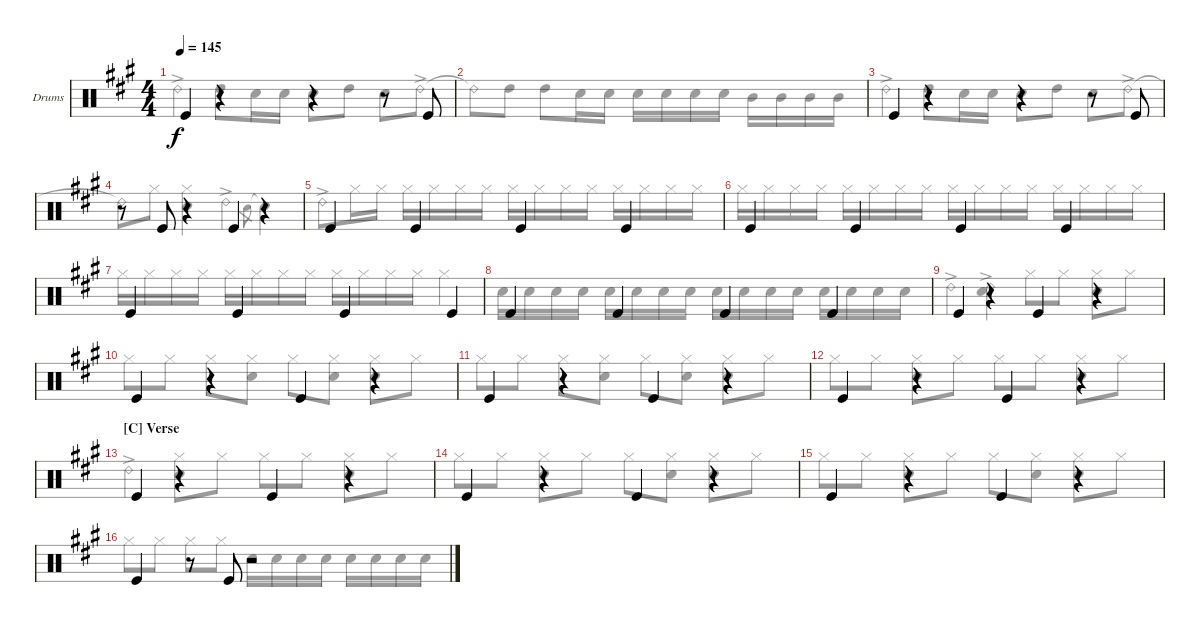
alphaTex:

\bracketExtendMode groupsimilarinstruments
\firstSystemTrackNameOrientation horizontal
\otherSystemsTrackNameOrientation horizontal
\track ("Drumkit" "Drums") {instrument percussion}
\staff {score}
\articulation defaults
\voice
\ts (4 4)
\tempo 145
\clef neutral
\scale
1.05801
\ks a "Kick (hit)".4{dy f}
r.4 r.4 r.8 "Kick (hit)".8 |
\scale
0.941992 |
\scale
1.05801 "Kick (hit)".4 r.4 r.4 r.8 "Kick (hit)".8 |
\scale
0.941992 r.8 "Kick (hit)".8 r.4 "Kick (hit)".4 r.4 |
\scale
1.05801 "Kick (hit)".4 "Kick (hit)".4 "Kick (hit)".4 "Kick (hit)".4 |
\scale
0.941992 "Kick (hit)".4 "Kick (hit)".4 "Kick (hit)".4 "Kick (hit)".4 |
\scale
1.05801 "Kick (hit)".4 "Kick (hit)".4 "Kick (hit)".4 "Kick (hit)".4 |
\scale
0.941992 "Kick (hit)".4 "Kick (hit)".4 "Kick (hit)".4 "Kick (hit)".4 |
\scale
1.05801 "Kick (hit)".4 r.4 "Kick (hit)".4 r.4 |
\scale
0.941992 "Kick (hit)".4 r.4 "Kick (hit)".4 r.4 |
\scale
1.05801 "Kick (hit)".4 r.4 "Kick (hit)".4 r.4 |
\scale
0.941992 "Kick (hit)".4 r.4 "Kick (hit)".4 r.4 |
\section ("C" "Verse")
\scale
1.05801 "Kick (hit)".4 r.4 "Kick (hit)".4 r.4 |
\scale
0.941992 "Kick (hit)".4 r.4 "Kick (hit)".4 r.4 |
\scale
1.05801 "Kick (hit)".4 r.4 "Kick (hit)".4 r.4 |
\scale
0.941992 "Kick (hit)".4 r.8 "Kick (hit)".8 r.2
\voice
\clef neutral
\ottava regular
\simile none
\scale
1.05801
\ks a "Ride (bell) 2"{ac}.4{dy f} "High Tom (hit)".8 "Snare (hit) 2".16 "Snare (hit) 2".16 "Snare (hit) 2".8 "High Tom (hit)".8 "Snare (hit) 2".8 "Ride (bell) 2"{ac}.8
|
\scale
0.941992 "Ride (bell) 2"{t}.8 "High Tom (hit)".8 "High Tom (hit)".8 "Snare (hit) 2".16 "Snare (hit) 2".16 "Snare (hit) 2".16 "Snare (hit) 2".16 "Snare (hit) 2".16 "Snare (hit) 2".16 "Mid Tom (hit)".16 "Mid Tom (hit)".16 "Mid Tom (hit)".16 "Mid Tom (hit)".16 |
\scale
1.05801 "Ride (bell) 2"{ac}.4 "High Tom (hit)".8 "Snare (hit) 2".16 "Snare (hit) 2".16 "Snare (hit) 2".8 "High Tom (hit)".8 "Snare (hit) 2".8 "Ride (bell) 2"{ac}.8 |
\scale
0.941992 "Ride (bell) 2"{t}.8 "Hi-Hat (closed)".8 ("Hi-Hat (closed)" "Snare (hit) 2").4 "Ride (bell) 2"{ac}.4 "Snare (hit) 2".8{gr} "Snare (hit) 2"{t}.4 |
\scale
1.05801 "Ride (bell) 2"{ac}.8 "Hi-Hat (closed)".16 "Hi-Hat (closed)".16 "Hi-Hat (closed)".16 "Hi-Hat (closed)".16 "Hi-Hat (closed)".16 "Hi-Hat (closed)".16 "Hi-Hat (closed)".16 "Hi-Hat (closed)".16 "Hi-Hat (closed)".16 "Hi-Hat (closed)".16 "Hi-Hat (closed)".16 "Hi-Hat (closed)".16 "Hi-Hat (closed)".16 "Hi-Hat (closed)".16 |
\scale
0.941992 "Hi-Hat (closed)".16 "Hi-Hat (closed)".16 "Hi-Hat (closed)".16 "Hi-Hat (closed)".16 "Hi-Hat (closed)".16 "Hi-Hat (closed)".16 "Hi-Hat (closed)".16 "Hi-Hat (closed)".16 "Hi-Hat (closed)".16 "Hi-Hat (closed)".16 "Hi-Hat (closed)".16 "Hi-Hat (closed)".16 "Hi-Hat (closed)".16 "Hi-Hat (closed)".16 "Hi-Hat (closed)".16 "Hi-Hat (closed)".16 |
\scale
1.05801 "Hi-Hat (closed)".16 "Hi-Hat (closed)".16 "Hi-Hat (closed)".16 "Hi-Hat (closed)".16 "Hi-Hat (closed)".16 "Hi-Hat (closed)".16 "Hi-Hat (closed)".16 "Hi-Hat (closed)".16 "Hi-Hat (closed)".16 "Hi-Hat (closed)".16 "Hi-Hat (closed)".16 "Hi-Hat (closed)".16 "Hi-Hat (closed)".4 |
\scale
0.941992 "Snare (hit) 2".16 "Snare (hit) 2".16 "Snare (hit) 2".16 "Snare (hit) 2".16 "Snare (hit) 2".16 "Snare (hit) 2".16 "Snare (hit) 2".16 "Snare (hit) 2".16 "Snare (hit) 2".16 "Snare (hit) 2".16 "Snare (hit) 2".16 "Snare (hit) 2".16 "Snare (hit) 2".16 "Snare (hit) 2".16 "Snare (hit) 2".16 "Snare (hit) 2".16 |
\scale
1.05801 "Ride (bell) 2"{ac}.4 ("Snare (hit) 2" "Ride (bell) 2"{ac}).4 "Hi-Hat (closed)".8 "Hi-Hat (closed)".8 ("Hi-Hat (closed)" "Snare (hit) 2").8 "Hi-Hat (closed)".8 |
\scale
0.941992 "Hi-Hat (closed)".8 "Hi-Hat (closed)".8 "Hi-Hat (closed)".8 ("Hi-Hat (closed)" "Snare (hit) 2").8 "Hi-Hat (closed)".8 ("Hi-Hat (closed)" "Snare (hit) 2").8 ("Hi-Hat (closed)" "Snare (hit) 2").8 "Hi-Hat (closed)".8 |
\scale
1.05801 "Hi-Hat (closed)".8 "Hi-Hat (closed)".8 "Hi-Hat (closed)".8 ("Hi-Hat (closed)" "Snare (hit) 2").8 "Hi-Hat (closed)".8 ("Hi-Hat (closed)" "Snare (hit) 2").8 ("Hi-Hat (closed)" "Snare (hit) 2").8 "Hi-Hat (closed)".8 |
\scale
0.941992 "Hi-Hat (closed)".8 "Hi-Hat (closed)".8 ("Hi-Hat (closed)" "Snare (hit) 2").8 "Hi-Hat (closed)".8 "Hi-Hat (closed)".8 "Hi-Hat (closed)".8 ("Hi-Hat (closed)" "Snare (hit) 2").8 "Hi-Hat (closed)".8 |
\scale
1.05801 "Ride (bell) 2"{ac}.4 ("Snare (hit) 2" "Hi-Hat (closed)").8 "Hi-Hat (closed)".8 "Hi-Hat (closed)".8 "Hi-Hat (closed)".8 ("Hi-Hat (closed)" "Snare (hit) 2").8 "Hi-Hat (closed)".8 |
\scale
0.941992 "Hi-Hat (closed)".8 "Hi-Hat (closed)".8 ("Snare (hit) 2" "Hi-Hat (closed)").8 "Hi-Hat (closed)".8 "Hi-Hat (closed)".8 ("Hi-Hat (closed)" "Snare (hit) 2").8 ("Hi-Hat (closed)" "Snare (hit) 2").8 "Hi-Hat (closed)".8 |
\scale
1.05801 "Hi-Hat (closed)".8 "Hi-Hat (closed)".8 ("Snare (hit) 2" "Hi-Hat (closed)").8 "Hi-Hat (closed)".8 "Hi-Hat (closed)".8 ("Hi-Hat (closed)" "Snare (hit) 2").8 ("Hi-Hat (closed)" "Snare (hit) 2").8 "Hi-Hat (closed)".8 |
\scale
0.941992 "Hi-Hat (closed)".8 "Hi-Hat (closed)".8 "Hi-Hat (closed)".8 "Hi-Hat (closed)".8 "Snare (hit) 2".16 "Snare (hit) 2".16 "Snare (hit) 2".16 "Snare (hit) 2".16 "Snare (hit) 2".16 "Snare (hit) 2".16 "Snare (hit) 2".16 "Snare (hit) 2".16
